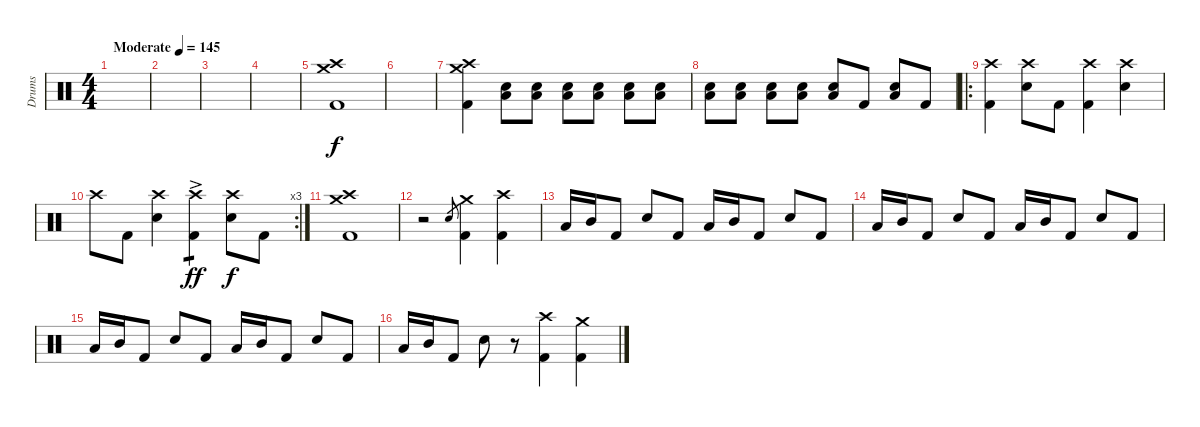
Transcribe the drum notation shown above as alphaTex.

\track ("Drums" "Drums") {instrument percussion}
\staff {score}
\articulation defaults
\ts (4 4)
\tempo (145 "Moderate")
\clef neutral
\ks c
|
|
|
|
("Kick (hit) 2" "Crash high (hit)" "Crash medium (hit)").1 |
|
("Kick (hit) 2" "Crash high (hit)" "Crash medium (hit)").4 ("Electric Snare (hit)" "Low Tom (hit)").8 ("Electric Snare (hit)" "Low Tom (hit)").8 ("Electric Snare (hit)" "Low Tom (hit)").8 ("Electric Snare (hit)" "Low Tom (hit)").8 ("Electric Snare (hit)" "Low Tom (hit)").8 ("Electric Snare (hit)" "Low Tom (hit)").8 |
("Electric Snare (hit)" "Low Tom (hit)").8 ("Electric Snare (hit)" "Low Tom (hit)").8 ("Electric Snare (hit)" "Low Tom (hit)").8 ("Electric Snare (hit)" "Low Tom (hit)").8 ("Electric Snare (hit)" "Low Tom (hit)").8 "Kick (hit) 2".8 ("Electric Snare (hit)" "Low Tom (hit)").8 "Kick (hit) 2".8 |
\ro
("Kick (hit) 2" "Crash high (hit)").4 ("Electric Snare (hit)" "Crash high (hit)").8 "Kick (hit) 2".8 ("Kick (hit) 2" "Crash high (hit)").4 ("Electric Snare (hit)" "Crash high (hit)").4 |
\rc 3 "Crash high (hit)".8 "Kick (hit) 2".8
("Electric Snare (hit)" "Crash high (hit)").4 ("Kick (hit) 2"{ac} "Crash high (hit)").4{tp 1 dy ff} ("Electric Snare (hit)" "Crash high (hit)").8{dy f} "Kick (hit) 2".8 |
("Kick (hit) 2" "Crash high (hit)" "Crash medium (hit)").1 |
r.2 "Electric Snare (hit)".8{gr} ("Kick (hit) 2" "Crash medium (hit)").4 ("Kick (hit) 2" "Crash high (hit)").4 |
"Low Tom (hit)".16 "Mid Tom (hit)".16 "Kick (hit) 2".8 "Electric Snare (hit)".8 "Kick (hit) 2".8 "Low Tom (hit)".16 "Mid Tom (hit)".16 "Kick (hit) 2".8 "Electric Snare (hit)".8 "Kick (hit) 2".8 |
"Low Tom (hit)".16 "Mid Tom (hit)".16 "Kick (hit) 2".8 "Electric Snare (hit)".8 "Kick (hit) 2".8 "Low Tom (hit)".16 "Mid Tom (hit)".16 "Kick (hit) 2".8 "Electric Snare (hit)".8 "Kick (hit) 2".8 |
"Low Tom (hit)".16 "Mid Tom (hit)".16 "Kick (hit) 2".8 "Electric Snare (hit)".8 "Kick (hit) 2".8 "Low Tom (hit)".16 "Mid Tom (hit)".16 "Kick (hit) 2".8 "Electric Snare (hit)".8 "Kick (hit) 2".8 |
"Low Tom (hit)".16 "Mid Tom (hit)".16 "Kick (hit) 2".8 "Electric Snare (hit)".8 r.8 ("Kick (hit) 2" "Crash high (hit)").4 ("Kick (hit) 2" "Crash medium (hit)").4
